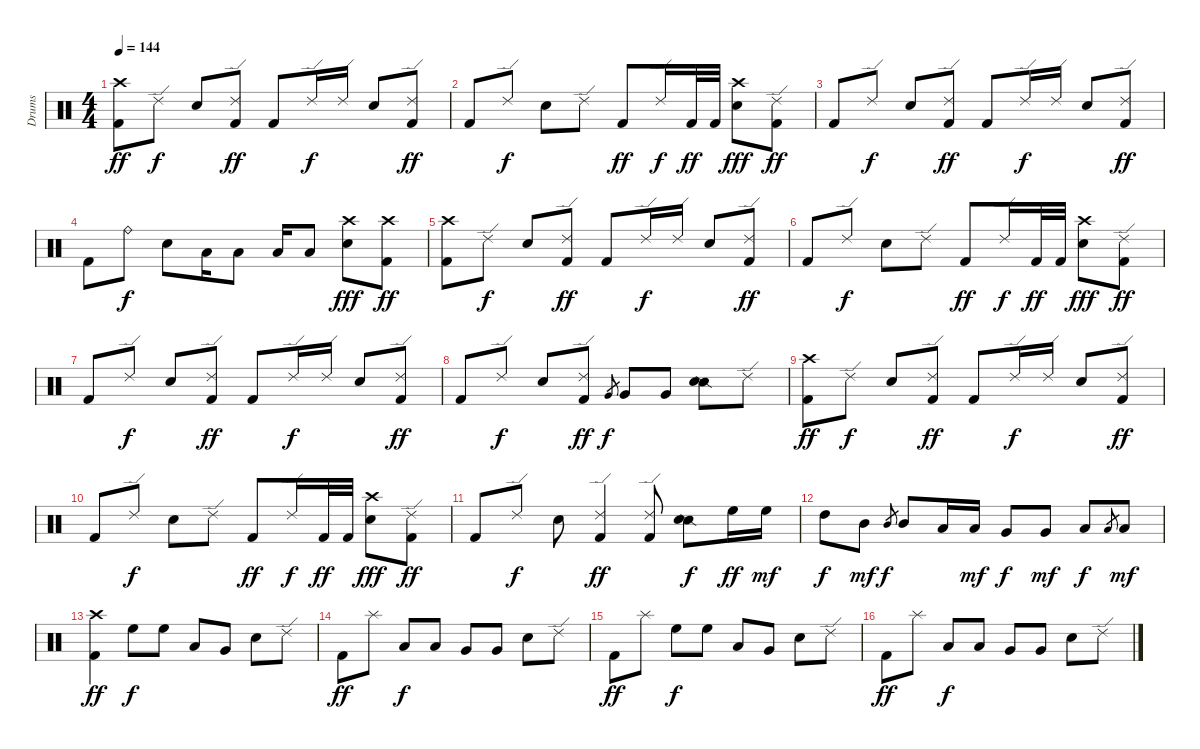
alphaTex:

\track ("Drums" "Drums") {instrument percussion}
\staff {score}
\articulation defaults
\ts (4 4)
\tempo 144
\clef neutral
\ks c
("Crash high (hit)" "Kick (hit) 2").8{dy ff} "Ride (edge) 2".8{dy f} "Snare (hit) 2".8 ("Ride (edge) 2" "Kick (hit) 2").8{dy ff} "Kick (hit) 2".8 "Ride (edge) 2".16{dy f} "Ride (edge) 2".16 "Snare (hit) 2".8 ("Ride (edge) 2" "Kick (hit) 2").8{dy ff} |
"Kick (hit) 2".8 "Ride (edge) 2".8{dy f} "Snare (hit) 2".8 "Ride (edge) 2".8 "Kick (hit) 2".8{dy ff} "Ride (edge) 2".16{dy f} "Kick (hit) 2".32{dy ff} "Kick (hit) 2".32 ("Crash high (hit)" "Snare (hit) 2").8{dy fff} ("Ride (edge) 2" "Kick (hit) 2").8{dy ff} |
"Kick (hit) 2".8 "Ride (edge) 2".8{dy f} "Snare (hit) 2".8 ("Ride (edge) 2" "Kick (hit) 2").8{dy ff} "Kick (hit) 2".8 "Ride (edge) 2".16{dy f} "Ride (edge) 2".16 "Snare (hit) 2".8 ("Ride (edge) 2" "Kick (hit) 2").8{dy ff} |
"Kick (hit) 2".8 "Ride (bell)".8{dy f} "Snare (hit) 2".8 "Low Tom (hit)".16 "Low Tom (hit)".8 "Low Tom (hit)".16 "Low Tom (hit)".8 ("Crash high (hit)" "Snare (hit) 2").8{dy fff} ("Crash high (hit)" "Kick (hit) 2").8{dy ff} |
("Crash high (hit)" "Kick (hit) 2").8 "Ride (edge) 2".8{dy f} "Snare (hit) 2".8 ("Ride (edge) 2" "Kick (hit) 2").8{dy ff} "Kick (hit) 2".8 "Ride (edge) 2".16{dy f} "Ride (edge) 2".16 "Snare (hit) 2".8 ("Ride (edge) 2" "Kick (hit) 2").8{dy ff} |
"Kick (hit) 2".8 "Ride (edge) 2".8{dy f} "Snare (hit) 2".8 "Ride (edge) 2".8 "Kick (hit) 2".8{dy ff} "Ride (edge) 2".16{dy f} "Kick (hit) 2".32{dy ff} "Kick (hit) 2".32 ("Crash high (hit)" "Snare (hit) 2").8{dy fff} ("Ride (edge) 2" "Kick (hit) 2").8{dy ff} |
"Kick (hit) 2".8 "Ride (edge) 2".8{dy f} "Snare (hit) 2".8 ("Ride (edge) 2" "Kick (hit) 2").8{dy ff} "Kick (hit) 2".8 "Ride (edge) 2".16{dy f} "Ride (edge) 2".16 "Snare (hit) 2".8 ("Ride (edge) 2" "Kick (hit) 2").8{dy ff} |
"Kick (hit) 2".8 "Ride (edge) 2".8{dy f} "Snare (hit) 2".8 ("Ride (edge) 2" "Kick (hit) 2").8{dy ff} "Very Low Tom (hit)".8{gr dy f} "Very Low Tom (hit)".8 "Very Low Tom (hit)".8 ("Snare (side stick) 2" "Snare (hit) 2").8 "Ride (edge) 2".8 |
("Crash high (hit)" "Kick (hit) 2").8{dy ff} "Ride (edge) 2".8{dy f} "Snare (hit) 2".8 ("Ride (edge) 2" "Kick (hit) 2").8{dy ff} "Kick (hit) 2".8 "Ride (edge) 2".16{dy f} "Ride (edge) 2".16 "Snare (hit) 2".8 ("Ride (edge) 2" "Kick (hit) 2").8{dy ff} |
"Kick (hit) 2".8 "Ride (edge) 2".8{dy f} "Snare (hit) 2".8 "Ride (edge) 2".8 "Kick (hit) 2".8{dy ff} "Ride (edge) 2".16{dy f} "Kick (hit) 2".32{dy ff} "Kick (hit) 2".32 ("Crash high (hit)" "Snare (hit) 2").8{dy fff} ("Ride (edge) 2" "Kick (hit) 2").8{dy ff} |
"Kick (hit) 2".8 "Ride (edge) 2".8{dy f} "Snare (hit) 2".8 ("Ride (edge) 2" "Kick (hit) 2").4{dy ff} ("Ride (edge) 2" "Kick (hit) 2").8 ("Snare (side stick) 2" "Snare (hit) 2").8{dy f} "High Floor Tom (hit)".16{dy ff} "High Floor Tom (hit)".16{dy mf} |
"High Tom (hit)".8{dy f} "Mid Tom (hit)".8{dy mf} "Mid Tom (hit)".8{gr dy f} "Mid Tom (hit)".8 "Low Tom (hit)".16 "Low Tom (hit)".16{dy mf} "Very Low Tom (hit)".8{dy f} "Very Low Tom (hit)".8{dy mf} "Low Floor Tom (hit)".8{dy f} "Low Floor Tom (hit)".8{gr} "Low Floor Tom (hit)".8{dy mf} |
("Crash high (hit)" "Kick (hit) 2").4{dy ff} "High Floor Tom (hit)".8{dy f} "High Floor Tom (hit)".8 "Low Tom (hit)".8 "Very Low Tom (hit)".8 "Snare (hit) 2".8 "Ride (edge) 2".8 |
"Kick (hit) 2".8{dy ff} "Splash (hit)".8 "Low Tom (hit)".8{dy f} "Low Tom (hit)".8 "Very Low Tom (hit)".8 "Very Low Tom (hit)".8 "Snare (hit) 2".8 "Ride (edge) 2".8 |
"Kick (hit) 2".8{dy ff} "Splash (hit)".8 "High Floor Tom (hit)".8{dy f} "High Floor Tom (hit)".8 "Low Tom (hit)".8 "Very Low Tom (hit)".8 "Snare (hit) 2".8 "Ride (edge) 2".8 |
"Kick (hit) 2".8{dy ff} "Splash (hit)".8 "Low Tom (hit)".8{dy f} "Low Tom (hit)".8 "Very Low Tom (hit)".8 "Very Low Tom (hit)".8 "Snare (hit) 2".8 "Ride (edge) 2".8
